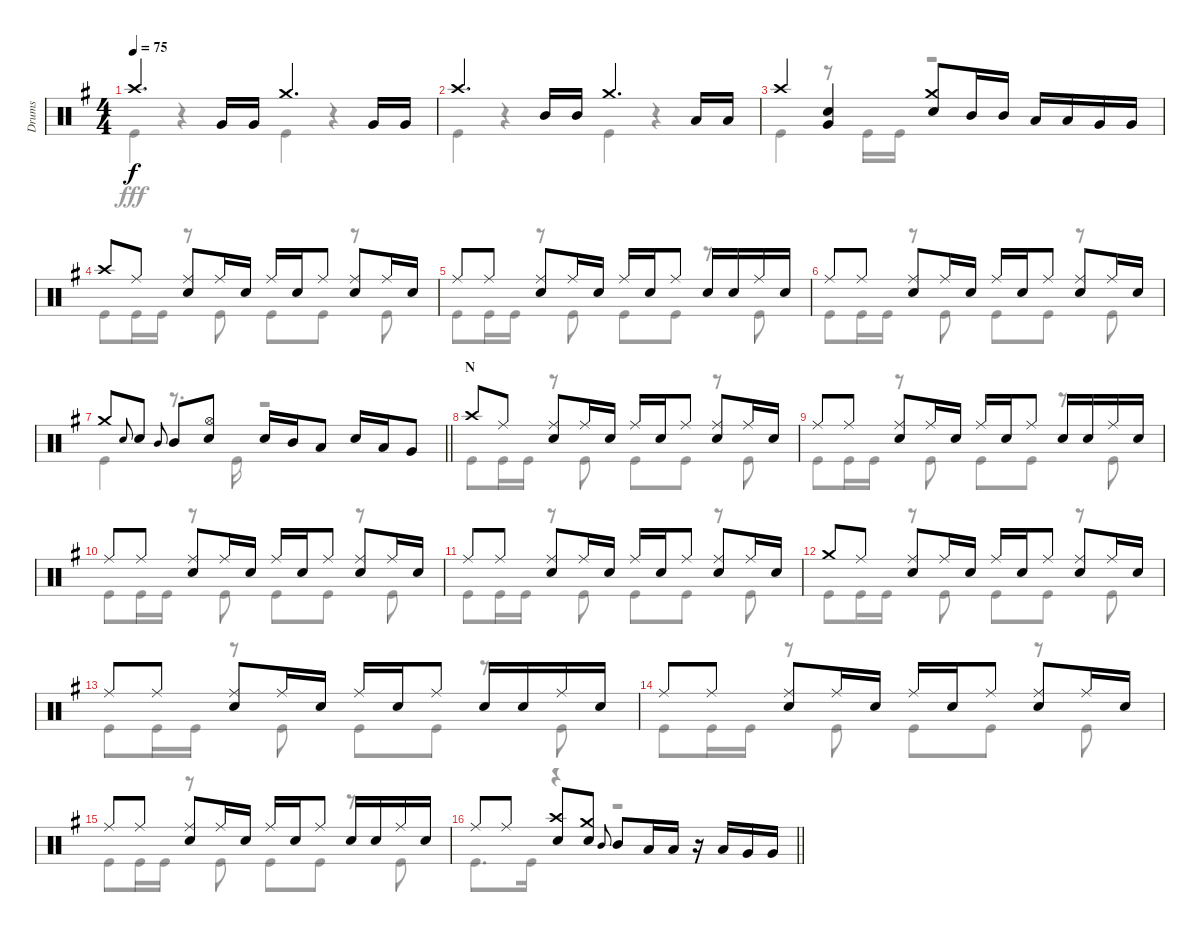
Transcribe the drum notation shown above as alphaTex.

\track ("Drums" "Drums") {instrument percussion}
\staff {score}
\articulation defaults
\voice
\ts (4 4)
\tempo 75
\clef neutral
\ks g "Crash high (hit)".4{d dy f} "Very Low Tom (hit)".16 "Very Low Tom (hit)".16 "Crash medium (hit)".4{d} "Very Low Tom (hit)".16 "Very Low Tom (hit)".16
|
"Crash high (hit)".4{d} "Mid Tom (hit)".16 "Mid Tom (hit)".16 "Crash medium (hit)".4{d} "Low Tom (hit)".16 "Low Tom (hit)".16 |
"Crash high (hit)".4 ("Snare (hit) 2" "Very Low Tom (hit)").4 ("Crash medium (hit)" "Snare (hit) 2").8 "Mid Tom (hit)".16 "Mid Tom (hit)".16 "Low Tom (hit)".16 "Low Tom (hit)".16 "Very Low Tom (hit)".16 "Very Low Tom (hit)".16 |
"Crash high (hit)".8 "Ride (middle)".8 ("Ride (middle)" "Snare (hit) 2").8 "Ride (middle)".16 "Snare (hit) 2".16 "Ride (middle)".16 "Snare (hit) 2".16 "Ride (middle)".8 ("Ride (middle)" "Snare (hit) 2").8 "Ride (middle)".16 "Snare (hit) 2".16 |
"Ride (middle)".8 "Ride (middle)".8 ("Ride (middle)" "Snare (hit) 2").8 "Ride (middle)".16 "Snare (hit) 2".16 "Ride (middle)".16 "Snare (hit) 2".16 "Ride (middle)".8 "Snare (hit) 2".16 "Snare (hit) 2".16 "Ride (middle)".16 "Snare (hit) 2".16 |
"Ride (middle)".8 "Ride (middle)".8 ("Ride (middle)" "Snare (hit) 2").8 "Ride (middle)".16 "Snare (hit) 2".16 "Ride (middle)".16 "Snare (hit) 2".16 "Ride (middle)".8 ("Ride (middle)" "Snare (hit) 2").8 "Ride (middle)".16 "Snare (hit) 2".16 |
\barLineRight lightlight "Crash medium (hit)".8 "Snare (hit) 2".8{gr onbeat} "Snare (hit) 2".8 "Mid Tom (hit)".8{gr onbeat} "Mid Tom (hit)".8
("Hi-Hat (open)" "Snare (hit) 2").8 "Snare (hit) 2".16 "Mid Tom (hit)".16 "Low Tom (hit)".8 "Snare (hit) 2".16 "Low Tom (hit)".16 "Very Low Tom (hit)".8 |
\section ("" "N")
"Crash high (hit)".8 "Ride (middle)".8 ("Ride (middle)" "Snare (hit) 2").8 "Ride (middle)".16 "Snare (hit) 2".16 "Ride (middle)".16 "Snare (hit) 2".16 "Ride (middle)".8 ("Ride (middle)" "Snare (hit) 2").8 "Ride (middle)".16 "Snare (hit) 2".16 |
"Ride (middle)".8 "Ride (middle)".8 ("Ride (middle)" "Snare (hit) 2").8 "Ride (middle)".16 "Snare (hit) 2".16 "Ride (middle)".16 "Snare (hit) 2".16 "Ride (middle)".8 "Snare (hit) 2".16 "Snare (hit) 2".16 "Ride (middle)".16 "Snare (hit) 2".16 |
"Ride (middle)".8 "Ride (middle)".8 ("Ride (middle)" "Snare (hit) 2").8 "Ride (middle)".16 "Snare (hit) 2".16 "Ride (middle)".16 "Snare (hit) 2".16 "Ride (middle)".8 ("Ride (middle)" "Snare (hit) 2").8 "Ride (middle)".16 "Snare (hit) 2".16 |
"Ride (middle)".8 "Ride (middle)".8 ("Ride (middle)" "Snare (hit) 2").8 "Ride (middle)".16 "Snare (hit) 2".16 "Ride (middle)".16 "Snare (hit) 2".16 "Ride (middle)".8 ("Ride (middle)" "Snare (hit) 2").8 "Ride (middle)".16 "Snare (hit) 2".16 |
"Crash medium (hit)".8 "Ride (middle)".8 ("Ride (middle)" "Snare (hit) 2").8 "Ride (middle)".16 "Snare (hit) 2".16 "Ride (middle)".16 "Snare (hit) 2".16 "Ride (middle)".8 ("Ride (middle)" "Snare (hit) 2").8 "Ride (middle)".16 "Snare (hit) 2".16 |
"Ride (middle)".8 "Ride (middle)".8 ("Ride (middle)" "Snare (hit) 2").8 "Ride (middle)".16 "Snare (hit) 2".16 "Ride (middle)".16 "Snare (hit) 2".16 "Ride (middle)".8 "Snare (hit) 2".16 "Snare (hit) 2".16 "Ride (middle)".16 "Snare (hit) 2".16 |
"Ride (middle)".8 "Ride (middle)".8 ("Ride (middle)" "Snare (hit) 2").8 "Ride (middle)".16 "Snare (hit) 2".16 "Ride (middle)".16 "Snare (hit) 2".16 "Ride (middle)".8 ("Ride (middle)" "Snare (hit) 2").8 "Ride (middle)".16 "Snare (hit) 2".16 |
"Ride (middle)".8 "Ride (middle)".8 ("Ride (middle)" "Snare (hit) 2").8 "Ride (middle)".16 "Snare (hit) 2".16 "Ride (middle)".16 "Snare (hit) 2".16 "Ride (middle)".8 "Snare (hit) 2".16 "Snare (hit) 2".16 "Ride (middle)".16 "Snare (hit) 2".16 |
\barLineRight lightlight "Ride (middle)".8 "Ride (middle)".8
("Crash high (hit)" "Snare (hit) 2").8 ("Crash medium (hit)" "Snare (hit) 2").8 "Mid Tom (hit)".8{gr onbeat} "Mid Tom (hit)".8 "Low Tom (hit)".16 "Low Tom (hit)".16 r.16 "Low Tom (hit)".16 "Very Low Tom (hit)".16 "Very Low Tom (hit)".16
\voice
\clef neutral
\ottava regular
\simile none
\ks g "Kick (hit)".4{dy fff}
r.4 "Kick (hit)".4 r.4 |
"Kick (hit)".4 r.4 "Kick (hit)".4 r.4 |
"Kick (hit)".4 r.8 "Kick (hit)".16 "Kick (hit)".16 r.2 |
"Kick (hit)".8 "Kick (hit)".16 "Kick (hit)".16 r.8 "Kick (hit)".8 "Kick (hit)".8 "Kick (hit)".8 r.8 "Kick (hit)".8 |
"Kick (hit)".8 "Kick (hit)".16 "Kick (hit)".16 r.8 "Kick (hit)".8 "Kick (hit)".8 "Kick (hit)".8 r.8 "Kick (hit)".8 |
"Kick (hit)".8 "Kick (hit)".16 "Kick (hit)".16 r.8 "Kick (hit)".8 "Kick (hit)".8 "Kick (hit)".8 r.8 "Kick (hit)".8 |
\barLineRight lightlight "Kick (hit)".4
r.8{d} "Kick (hit)".16 r.2 |
"Kick (hit)".8 "Kick (hit)".16 "Kick (hit)".16 r.8 "Kick (hit)".8 "Kick (hit)".8 "Kick (hit)".8 r.8 "Kick (hit)".8 |
"Kick (hit)".8 "Kick (hit)".16 "Kick (hit)".16 r.8 "Kick (hit)".8 "Kick (hit)".8 "Kick (hit)".8 r.8 "Kick (hit)".8 |
"Kick (hit)".8 "Kick (hit)".16 "Kick (hit)".16 r.8 "Kick (hit)".8 "Kick (hit)".8 "Kick (hit)".8 r.8 "Kick (hit)".8 |
"Kick (hit)".8 "Kick (hit)".16 "Kick (hit)".16 r.8 "Kick (hit)".8 "Kick (hit)".8 "Kick (hit)".8 r.8 "Kick (hit)".8 |
"Kick (hit)".8 "Kick (hit)".16 "Kick (hit)".16 r.8 "Kick (hit)".8 "Kick (hit)".8 "Kick (hit)".8 r.8 "Kick (hit)".8 |
"Kick (hit)".8 "Kick (hit)".16 "Kick (hit)".16 r.8 "Kick (hit)".8 "Kick (hit)".8 "Kick (hit)".8 r.8 "Kick (hit)".8 |
"Kick (hit)".8 "Kick (hit)".16 "Kick (hit)".16 r.8 "Kick (hit)".8 "Kick (hit)".8 "Kick (hit)".8 r.8 "Kick (hit)".8 |
"Kick (hit)".8 "Kick (hit)".16 "Kick (hit)".16 r.8 "Kick (hit)".8 "Kick (hit)".8 "Kick (hit)".8 r.8 "Kick (hit)".8 |
\barLineRight lightlight "Kick (hit)".8{d} "Kick (hit)".16
r.4 r.2
